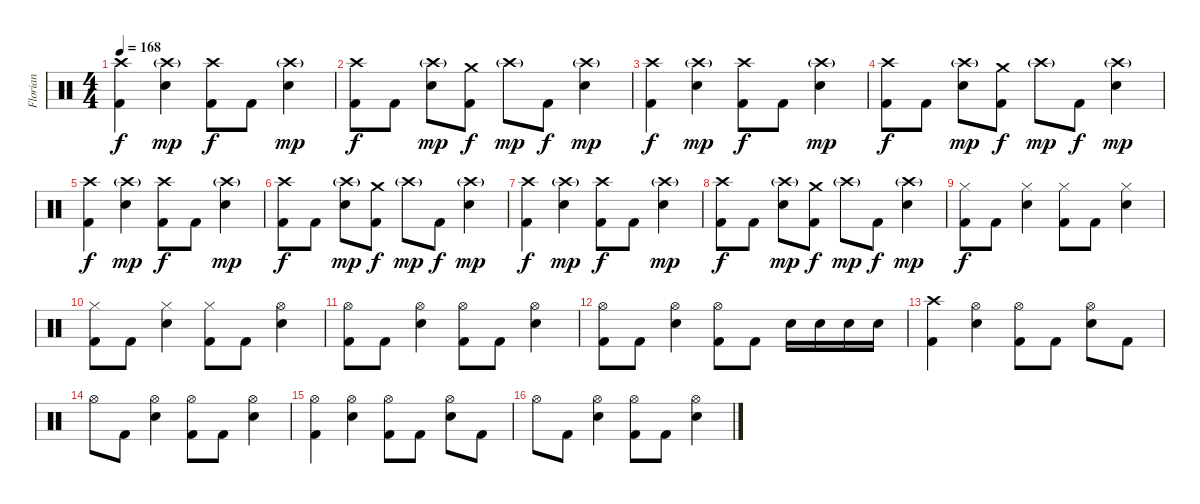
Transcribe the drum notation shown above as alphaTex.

\track ("Florian" "Florian") {instrument percussion}
\staff {score}
\articulation defaults
\ts (4 4)
\tempo 168
\clef neutral
\ks c
("Crash high (hit)" "Kick (hit) 2").4{dy f} ("Crash high (hit)"{g} "Snare (hit) 2").4{dy mp} ("Crash high (hit)" "Kick (hit) 2").8{dy f} "Kick (hit) 2".8 ("Crash high (hit)"{g} "Snare (hit) 2").4{dy mp} |
("Crash high (hit)" "Kick (hit) 2").8{dy f} "Kick (hit) 2".8 ("Crash high (hit)"{g} "Snare (hit) 2").8{dy mp} ("Crash medium (hit)" "Kick (hit) 2").8{dy f} "Crash high (hit)"{g}.8{dy mp} "Kick (hit) 2".8{dy f} ("Crash high (hit)"{g} "Snare (hit) 2").4{dy mp} |
("Crash high (hit)" "Kick (hit) 2").4{dy f} ("Crash high (hit)"{g} "Snare (hit) 2").4{dy mp} ("Crash high (hit)" "Kick (hit) 2").8{dy f} "Kick (hit) 2".8 ("Crash high (hit)"{g} "Snare (hit) 2").4{dy mp} |
("Crash high (hit)" "Kick (hit) 2").8{dy f} "Kick (hit) 2".8 ("Crash high (hit)"{g} "Snare (hit) 2").8{dy mp} ("Crash medium (hit)" "Kick (hit) 2").8{dy f} "Crash high (hit)"{g}.8{dy mp} "Kick (hit) 2".8{dy f} ("Crash high (hit)"{g} "Snare (hit) 2").4{dy mp} |
("Crash high (hit)" "Kick (hit) 2").4{dy f} ("Crash high (hit)"{g} "Snare (hit) 2").4{dy mp} ("Crash high (hit)" "Kick (hit) 2").8{dy f} "Kick (hit) 2".8 ("Crash high (hit)"{g} "Snare (hit) 2").4{dy mp} |
("Crash high (hit)" "Kick (hit) 2").8{dy f} "Kick (hit) 2".8 ("Crash high (hit)"{g} "Snare (hit) 2").8{dy mp} ("Crash medium (hit)" "Kick (hit) 2").8{dy f} "Crash high (hit)"{g}.8{dy mp} "Kick (hit) 2".8{dy f} ("Crash high (hit)"{g} "Snare (hit) 2").4{dy mp} |
("Crash high (hit)" "Kick (hit) 2").4{dy f} ("Crash high (hit)"{g} "Snare (hit) 2").4{dy mp} ("Crash high (hit)" "Kick (hit) 2").8{dy f} "Kick (hit) 2".8 ("Crash high (hit)"{g} "Snare (hit) 2").4{dy mp} |
("Crash high (hit)" "Kick (hit) 2").8{dy f} "Kick (hit) 2".8 ("Crash high (hit)"{g} "Snare (hit) 2").8{dy mp} ("Crash medium (hit)" "Kick (hit) 2").8{dy f} "Crash high (hit)"{g}.8{dy mp} "Kick (hit) 2".8{dy f} ("Crash high (hit)"{g} "Snare (hit) 2").4{dy mp} |
("Hi-Hat (closed)" "Kick (hit) 2").8{dy f} "Kick (hit) 2".8 ("Hi-Hat (closed)" "Snare (hit) 2").4 ("Hi-Hat (closed)" "Kick (hit) 2").8 "Kick (hit) 2".8 ("Hi-Hat (closed)" "Snare (hit) 2").4 |
("Hi-Hat (closed)" "Kick (hit) 2").8 "Kick (hit) 2".8 ("Hi-Hat (closed)" "Snare (hit) 2").4 ("Hi-Hat (closed)" "Kick (hit) 2").8 "Kick (hit) 2".8 ("Hi-Hat (open)" "Snare (hit) 2").4 |
("Hi-Hat (open)" "Kick (hit) 2").8 "Kick (hit) 2".8 ("Hi-Hat (open)" "Snare (hit) 2").4 ("Hi-Hat (open)" "Kick (hit) 2").8 "Kick (hit) 2".8 ("Hi-Hat (open)" "Snare (hit) 2").4 |
("Hi-Hat (open)" "Kick (hit) 2").8 "Kick (hit) 2".8 ("Hi-Hat (open)" "Snare (hit) 2").4 ("Hi-Hat (open)" "Kick (hit) 2").8 "Kick (hit) 2".8 "Snare (hit) 2".16 "Snare (hit) 2".16 "Snare (hit) 2".16 "Snare (hit) 2".16 |
("Crash high (hit)" "Kick (hit) 2").4 ("Hi-Hat (open)" "Snare (hit) 2").4 ("Hi-Hat (open)" "Kick (hit) 2").8 "Kick (hit) 2".8 ("Hi-Hat (open)" "Snare (hit) 2").8 "Kick (hit) 2".8 |
"Hi-Hat (open)".8 "Kick (hit) 2".8 ("Hi-Hat (open)" "Snare (hit) 2").4 ("Hi-Hat (open)" "Kick (hit) 2").8 "Kick (hit) 2".8 ("Hi-Hat (open)" "Snare (hit) 2").4 |
("Hi-Hat (open)" "Kick (hit) 2").4 ("Hi-Hat (open)" "Snare (hit) 2").4 ("Hi-Hat (open)" "Kick (hit) 2").8 "Kick (hit) 2".8 ("Hi-Hat (open)" "Snare (hit) 2").8 "Kick (hit) 2".8 |
"Hi-Hat (open)".8 "Kick (hit) 2".8 ("Hi-Hat (open)" "Snare (hit) 2").4 ("Hi-Hat (open)" "Kick (hit) 2").8 "Kick (hit) 2".8 ("Hi-Hat (open)" "Snare (hit) 2").4
